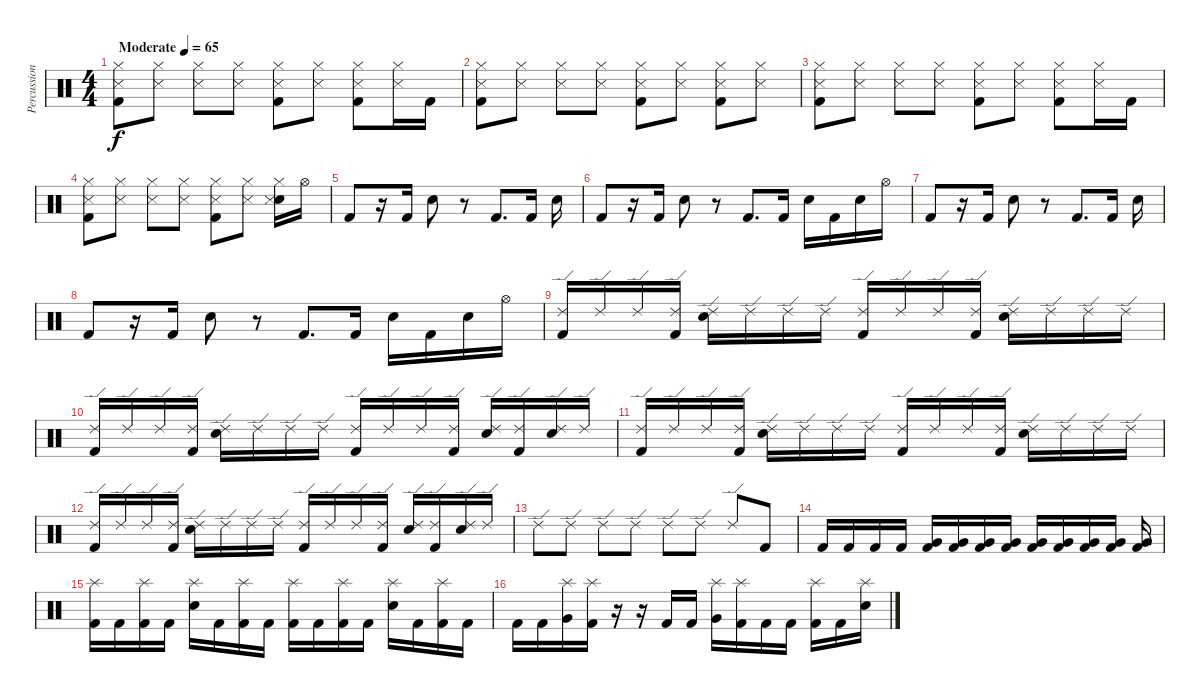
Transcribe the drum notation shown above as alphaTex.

\track ("Percussion" "Percussion") {instrument percussion}
\staff {score}
\articulation defaults
\ts (4 4)
\tempo (65 "Moderate")
\clef neutral
\ks c
("Kick (hit) 2" "Metronome (hit)" "Hi-Hat (closed)").8{dy f} ("Metronome (hit)" "Hi-Hat (closed)").8 ("Metronome (hit)" "Hi-Hat (closed)").8 ("Metronome (hit)" "Hi-Hat (closed)").8 ("Kick (hit) 2" "Metronome (hit)" "Hi-Hat (closed)").8 ("Metronome (hit)" "Hi-Hat (closed)").8 ("Kick (hit) 2" "Metronome (hit)" "Hi-Hat (closed)").8 ("Metronome (hit)" "Hi-Hat (closed)").16 "Kick (hit) 2".16 |
("Kick (hit) 2" "Metronome (hit)" "Hi-Hat (closed)").8 ("Metronome (hit)" "Hi-Hat (closed)").8 ("Metronome (hit)" "Hi-Hat (closed)").8 ("Metronome (hit)" "Hi-Hat (closed)").8 ("Kick (hit) 2" "Metronome (hit)" "Hi-Hat (closed)").8 ("Metronome (hit)" "Hi-Hat (closed)").8 ("Kick (hit) 2" "Metronome (hit)" "Hi-Hat (closed)").8 ("Metronome (hit)" "Hi-Hat (closed)").8 |
("Kick (hit) 2" "Metronome (hit)" "Hi-Hat (closed)").8 ("Metronome (hit)" "Hi-Hat (closed)").8 ("Metronome (hit)" "Hi-Hat (closed)").8 ("Metronome (hit)" "Hi-Hat (closed)").8 ("Kick (hit) 2" "Metronome (hit)" "Hi-Hat (closed)").8 ("Metronome (hit)" "Hi-Hat (closed)").8 ("Kick (hit) 2" "Metronome (hit)" "Hi-Hat (closed)").8 ("Metronome (hit)" "Hi-Hat (closed)").16 "Kick (hit) 2".16 |
("Kick (hit) 2" "Metronome (hit)" "Hi-Hat (closed)").8 ("Metronome (hit)" "Hi-Hat (closed)").8 ("Metronome (hit)" "Hi-Hat (closed)").8 ("Metronome (hit)" "Hi-Hat (closed)").8 ("Kick (hit) 2" "Metronome (hit)" "Hi-Hat (closed)").8 ("Metronome (hit)" "Hi-Hat (closed)").8 ("Snare (hit) 2" "Metronome (hit)" "Hi-Hat (closed)").16 "Hi-Hat (open)".16 |
"Kick (hit) 2".8 r.16 "Kick (hit) 2".16 "Snare (hit) 2".8 r.8 "Kick (hit) 2".8{d} "Kick (hit) 2".16 "Snare (hit) 2".16 |
"Kick (hit) 2".8 r.16 "Kick (hit) 2".16 "Snare (hit) 2".8 r.8 "Kick (hit) 2".8{d} "Kick (hit) 2".16 "Snare (hit) 2".16 "Kick (hit) 2".16 "Snare (hit) 2".16 "Hi-Hat (open)".16 |
"Kick (hit) 2".8 r.16 "Kick (hit) 2".16 "Snare (hit) 2".8 r.8 "Kick (hit) 2".8{d} "Kick (hit) 2".16 "Snare (hit) 2".16 |
"Kick (hit) 2".8 r.16 "Kick (hit) 2".16 "Snare (hit) 2".8 r.8 "Kick (hit) 2".8{d} "Kick (hit) 2".16 "Snare (hit) 2".16 "Kick (hit) 2".16 "Snare (hit) 2".16 "Hi-Hat (open)".16 |
("Kick (hit) 2" "Ride (edge) 2").16 "Ride (edge) 2".16 "Ride (edge) 2".16 ("Kick (hit) 2" "Ride (edge) 2").16 ("Snare (hit) 2" "Ride (edge) 2").16 "Ride (edge) 2".16 "Ride (edge) 2".16 "Ride (edge) 2".16 ("Kick (hit) 2" "Ride (edge) 2").16 "Ride (edge) 2".16 "Ride (edge) 2".16 ("Kick (hit) 2" "Ride (edge) 2").16 ("Snare (hit) 2" "Ride (edge) 2").16 "Ride (edge) 2".16 "Ride (edge) 2".16 "Ride (edge) 2".16 |
("Kick (hit) 2" "Ride (edge) 2").16 "Ride (edge) 2".16 "Ride (edge) 2".16 ("Kick (hit) 2" "Ride (edge) 2").16 ("Snare (hit) 2" "Ride (edge) 2").16 "Ride (edge) 2".16 "Ride (edge) 2".16 "Ride (edge) 2".16 ("Kick (hit) 2" "Ride (edge) 2").16 "Ride (edge) 2".16 "Ride (edge) 2".16 ("Kick (hit) 2" "Ride (edge) 2").16 ("Snare (hit) 2" "Ride (edge) 2").16 ("Kick (hit) 2" "Ride (edge) 2").16 ("Snare (hit) 2" "Ride (edge) 2").16 "Ride (edge) 2".16 |
("Kick (hit) 2" "Ride (edge) 2").16 "Ride (edge) 2".16 "Ride (edge) 2".16 ("Kick (hit) 2" "Ride (edge) 2").16 ("Snare (hit) 2" "Ride (edge) 2").16 "Ride (edge) 2".16 "Ride (edge) 2".16 "Ride (edge) 2".16 ("Kick (hit) 2" "Ride (edge) 2").16 "Ride (edge) 2".16 "Ride (edge) 2".16 ("Kick (hit) 2" "Ride (edge) 2").16 ("Snare (hit) 2" "Ride (edge) 2").16 "Ride (edge) 2".16 "Ride (edge) 2".16 "Ride (edge) 2".16 |
("Kick (hit) 2" "Ride (edge) 2").16 "Ride (edge) 2".16 "Ride (edge) 2".16 ("Kick (hit) 2" "Ride (edge) 2").16 ("Snare (hit) 2" "Ride (edge) 2").16 "Ride (edge) 2".16 "Ride (edge) 2".16 "Ride (edge) 2".16 ("Kick (hit) 2" "Ride (edge) 2").16 "Ride (edge) 2".16 "Ride (edge) 2".16 ("Kick (hit) 2" "Ride (edge) 2").16 ("Snare (hit) 2" "Ride (edge) 2").16 ("Kick (hit) 2" "Ride (edge) 2").16 ("Snare (hit) 2" "Ride (edge) 2").16 "Ride (edge) 2".16 |
"Ride (edge) 2".8 "Ride (edge) 2".8 "Ride (edge) 2".8 "Ride (edge) 2".8 "Ride (edge) 2".8 "Ride (edge) 2".8 "Ride (edge) 2".8 "Kick (hit) 2".8 |
"Kick (hit) 2".16 "Kick (hit) 2".16 "Kick (hit) 2".16 "Kick (hit) 2".16 ("Kick (hit) 2" "Very Low Tom (hit)").16 ("Kick (hit) 2" "Very Low Tom (hit)").16 ("Kick (hit) 2" "Very Low Tom (hit)").16 ("Kick (hit) 2" "Very Low Tom (hit)").16 ("Kick (hit) 2" "Very Low Tom (hit)").16 ("Kick (hit) 2" "Very Low Tom (hit)").16 ("Kick (hit) 2" "Very Low Tom (hit)").16 ("Kick (hit) 2" "Very Low Tom (hit)").16 ("Kick (hit) 2" "Very Low Tom (hit)").16 |
("Splash (hit)" "Kick (hit) 2").16 "Kick (hit) 2".16 ("Splash (hit)" "Kick (hit) 2").16 "Kick (hit) 2".16 ("Splash (hit)" "Snare (hit) 2").16 "Kick (hit) 2".16 ("Splash (hit)" "Kick (hit) 2").16 "Kick (hit) 2".16 ("Splash (hit)" "Kick (hit) 2").16 "Kick (hit) 2".16 ("Splash (hit)" "Kick (hit) 2").16 "Kick (hit) 2".16 ("Splash (hit)" "Snare (hit) 2").16 "Kick (hit) 2".16 ("Splash (hit)" "Kick (hit) 2").16 "Kick (hit) 2".16 |
"Kick (hit) 2".16 "Kick (hit) 2".16 ("Splash (hit)" "Very Low Tom (hit)").16 ("Splash (hit)" "Kick (hit) 2").16 r.16 r.16 "Kick (hit) 2".16 "Kick (hit) 2".16 ("Splash (hit)" "Very Low Tom (hit)").16 ("Splash (hit)" "Kick (hit) 2").16 "Kick (hit) 2".16 "Kick (hit) 2".16 ("Splash (hit)" "Kick (hit) 2").16 "Kick (hit) 2".16 ("Splash (hit)" "Snare (hit) 2").16
